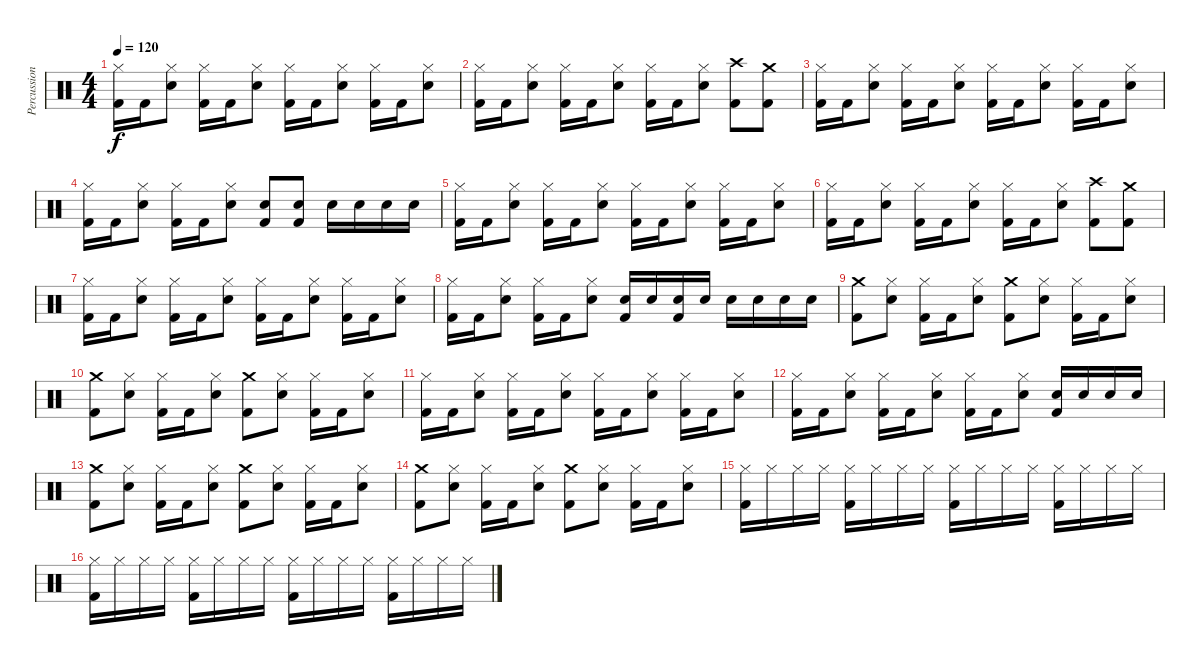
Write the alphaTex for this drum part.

\track ("Percussion" "Percussion") {instrument percussion}
\staff {score}
\articulation defaults
\ts (4 4)
\tempo 120
\clef neutral
\ks c
("Hi-Hat (closed)" "Kick (hit) 2").16{dy f} "Kick (hit) 2".16 ("Hi-Hat (closed)" "Snare (hit) 2").8 ("Hi-Hat (closed)" "Kick (hit) 2").16 "Kick (hit) 2".16 ("Hi-Hat (closed)" "Snare (hit) 2").8 ("Hi-Hat (closed)" "Kick (hit) 2").16 "Kick (hit) 2".16 ("Hi-Hat (closed)" "Snare (hit) 2").8 ("Hi-Hat (closed)" "Kick (hit) 2").16 "Kick (hit) 2".16 ("Hi-Hat (closed)" "Snare (hit) 2").8 |
("Hi-Hat (closed)" "Kick (hit) 2").16 "Kick (hit) 2".16 ("Hi-Hat (closed)" "Snare (hit) 2").8 ("Hi-Hat (closed)" "Kick (hit) 2").16 "Kick (hit) 2".16 ("Hi-Hat (closed)" "Snare (hit) 2").8 ("Hi-Hat (closed)" "Kick (hit) 2").16 "Kick (hit) 2".16 ("Hi-Hat (closed)" "Snare (hit) 2").8 ("Crash high (hit)" "Kick (hit) 2").8 ("Crash medium (hit)" "Kick (hit) 2").8 |
("Hi-Hat (closed)" "Kick (hit) 2").16 "Kick (hit) 2".16 ("Hi-Hat (closed)" "Snare (hit) 2").8 ("Hi-Hat (closed)" "Kick (hit) 2").16 "Kick (hit) 2".16 ("Hi-Hat (closed)" "Snare (hit) 2").8 ("Hi-Hat (closed)" "Kick (hit) 2").16 "Kick (hit) 2".16 ("Hi-Hat (closed)" "Snare (hit) 2").8 ("Hi-Hat (closed)" "Kick (hit) 2").16 "Kick (hit) 2".16 ("Hi-Hat (closed)" "Snare (hit) 2").8 |
("Hi-Hat (closed)" "Kick (hit) 2").16 "Kick (hit) 2".16 ("Hi-Hat (closed)" "Snare (hit) 2").8 ("Hi-Hat (closed)" "Kick (hit) 2").16 "Kick (hit) 2".16 ("Hi-Hat (closed)" "Snare (hit) 2").8 ("Snare (hit) 2" "Kick (hit) 2").8 ("Snare (hit) 2" "Kick (hit) 2").8 "Snare (hit) 2".16 "Snare (hit) 2".16 "Snare (hit) 2".16 "Snare (hit) 2".16 |
("Hi-Hat (closed)" "Kick (hit) 2").16 "Kick (hit) 2".16 ("Hi-Hat (closed)" "Snare (hit) 2").8 ("Hi-Hat (closed)" "Kick (hit) 2").16 "Kick (hit) 2".16 ("Hi-Hat (closed)" "Snare (hit) 2").8 ("Hi-Hat (closed)" "Kick (hit) 2").16 "Kick (hit) 2".16 ("Hi-Hat (closed)" "Snare (hit) 2").8 ("Hi-Hat (closed)" "Kick (hit) 2").16 "Kick (hit) 2".16 ("Hi-Hat (closed)" "Snare (hit) 2").8 |
("Hi-Hat (closed)" "Kick (hit) 2").16 "Kick (hit) 2".16 ("Hi-Hat (closed)" "Snare (hit) 2").8 ("Hi-Hat (closed)" "Kick (hit) 2").16 "Kick (hit) 2".16 ("Hi-Hat (closed)" "Snare (hit) 2").8 ("Hi-Hat (closed)" "Kick (hit) 2").16 "Kick (hit) 2".16 ("Hi-Hat (closed)" "Snare (hit) 2").8 ("Crash high (hit)" "Kick (hit) 2").8 ("Crash medium (hit)" "Kick (hit) 2").8 |
("Hi-Hat (closed)" "Kick (hit) 2").16 "Kick (hit) 2".16 ("Hi-Hat (closed)" "Snare (hit) 2").8 ("Hi-Hat (closed)" "Kick (hit) 2").16 "Kick (hit) 2".16 ("Hi-Hat (closed)" "Snare (hit) 2").8 ("Hi-Hat (closed)" "Kick (hit) 2").16 "Kick (hit) 2".16 ("Hi-Hat (closed)" "Snare (hit) 2").8 ("Hi-Hat (closed)" "Kick (hit) 2").16 "Kick (hit) 2".16 ("Hi-Hat (closed)" "Snare (hit) 2").8 |
("Hi-Hat (closed)" "Kick (hit) 2").16 "Kick (hit) 2".16 ("Hi-Hat (closed)" "Snare (hit) 2").8 ("Hi-Hat (closed)" "Kick (hit) 2").16 "Kick (hit) 2".16 ("Hi-Hat (closed)" "Snare (hit) 2").8 ("Snare (hit) 2" "Kick (hit) 2").16 "Snare (hit) 2".16 ("Snare (hit) 2" "Kick (hit) 2").16 "Snare (hit) 2".16 "Snare (hit) 2".16 "Snare (hit) 2".16 "Snare (hit) 2".16 "Snare (hit) 2".16 |
("Crash medium (hit)" "Kick (hit) 2").8 ("Hi-Hat (closed)" "Snare (hit) 2").8 ("Hi-Hat (closed)" "Kick (hit) 2").16 "Kick (hit) 2".16 ("Hi-Hat (closed)" "Snare (hit) 2").8 ("Crash medium (hit)" "Kick (hit) 2").8 ("Hi-Hat (closed)" "Snare (hit) 2").8 ("Hi-Hat (closed)" "Kick (hit) 2").16 "Kick (hit) 2".16 ("Hi-Hat (closed)" "Snare (hit) 2").8 |
("Crash medium (hit)" "Kick (hit) 2").8 ("Hi-Hat (closed)" "Snare (hit) 2").8 ("Hi-Hat (closed)" "Kick (hit) 2").16 "Kick (hit) 2".16 ("Hi-Hat (closed)" "Snare (hit) 2").8 ("Crash medium (hit)" "Kick (hit) 2").8 ("Hi-Hat (closed)" "Snare (hit) 2").8 ("Hi-Hat (closed)" "Kick (hit) 2").16 "Kick (hit) 2".16 ("Hi-Hat (closed)" "Snare (hit) 2").8 |
("Hi-Hat (closed)" "Kick (hit) 2").16 "Kick (hit) 2".16 ("Hi-Hat (closed)" "Snare (hit) 2").8 ("Hi-Hat (closed)" "Kick (hit) 2").16 "Kick (hit) 2".16 ("Hi-Hat (closed)" "Snare (hit) 2").8 ("Hi-Hat (closed)" "Kick (hit) 2").16 "Kick (hit) 2".16 ("Hi-Hat (closed)" "Snare (hit) 2").8 ("Hi-Hat (closed)" "Kick (hit) 2").16 "Kick (hit) 2".16 ("Hi-Hat (closed)" "Snare (hit) 2").8 |
("Hi-Hat (closed)" "Kick (hit) 2").16 "Kick (hit) 2".16 ("Hi-Hat (closed)" "Snare (hit) 2").8 ("Hi-Hat (closed)" "Kick (hit) 2").16 "Kick (hit) 2".16 ("Hi-Hat (closed)" "Snare (hit) 2").8 ("Hi-Hat (closed)" "Kick (hit) 2").16 "Kick (hit) 2".16 ("Hi-Hat (closed)" "Snare (hit) 2").8 ("Snare (hit) 2" "Kick (hit) 2").16 "Snare (hit) 2".16 "Snare (hit) 2".16 "Snare (hit) 2".16 |
("Crash medium (hit)" "Kick (hit) 2").8 ("Hi-Hat (closed)" "Snare (hit) 2").8 ("Hi-Hat (closed)" "Kick (hit) 2").16 "Kick (hit) 2".16 ("Hi-Hat (closed)" "Snare (hit) 2").8 ("Crash medium (hit)" "Kick (hit) 2").8 ("Hi-Hat (closed)" "Snare (hit) 2").8 ("Hi-Hat (closed)" "Kick (hit) 2").16 "Kick (hit) 2".16 ("Hi-Hat (closed)" "Snare (hit) 2").8 |
("Crash medium (hit)" "Kick (hit) 2").8 ("Hi-Hat (closed)" "Snare (hit) 2").8 ("Hi-Hat (closed)" "Kick (hit) 2").16 "Kick (hit) 2".16 ("Hi-Hat (closed)" "Snare (hit) 2").8 ("Crash medium (hit)" "Kick (hit) 2").8 ("Hi-Hat (closed)" "Snare (hit) 2").8 ("Hi-Hat (closed)" "Kick (hit) 2").16 "Kick (hit) 2".16 ("Hi-Hat (closed)" "Snare (hit) 2").8 |
("Hi-Hat (closed)" "Kick (hit) 2").16 "Hi-Hat (closed)".16 "Hi-Hat (closed)".16 "Hi-Hat (closed)".16 ("Hi-Hat (closed)" "Kick (hit) 2").16 "Hi-Hat (closed)".16 "Hi-Hat (closed)".16 "Hi-Hat (closed)".16 ("Hi-Hat (closed)" "Kick (hit) 2").16 "Hi-Hat (closed)".16 "Hi-Hat (closed)".16 "Hi-Hat (closed)".16 ("Hi-Hat (closed)" "Kick (hit) 2").16 "Hi-Hat (closed)".16 "Hi-Hat (closed)".16 "Hi-Hat (closed)".16 |
("Hi-Hat (closed)" "Kick (hit) 2").16 "Hi-Hat (closed)".16 "Hi-Hat (closed)".16 "Hi-Hat (closed)".16 ("Hi-Hat (closed)" "Kick (hit) 2").16 "Hi-Hat (closed)".16 "Hi-Hat (closed)".16 "Hi-Hat (closed)".16 ("Hi-Hat (closed)" "Kick (hit) 2").16 "Hi-Hat (closed)".16 "Hi-Hat (closed)".16 "Hi-Hat (closed)".16 ("Hi-Hat (closed)" "Kick (hit) 2").16 "Hi-Hat (closed)".16 "Hi-Hat (closed)".16 "Hi-Hat (closed)".16
